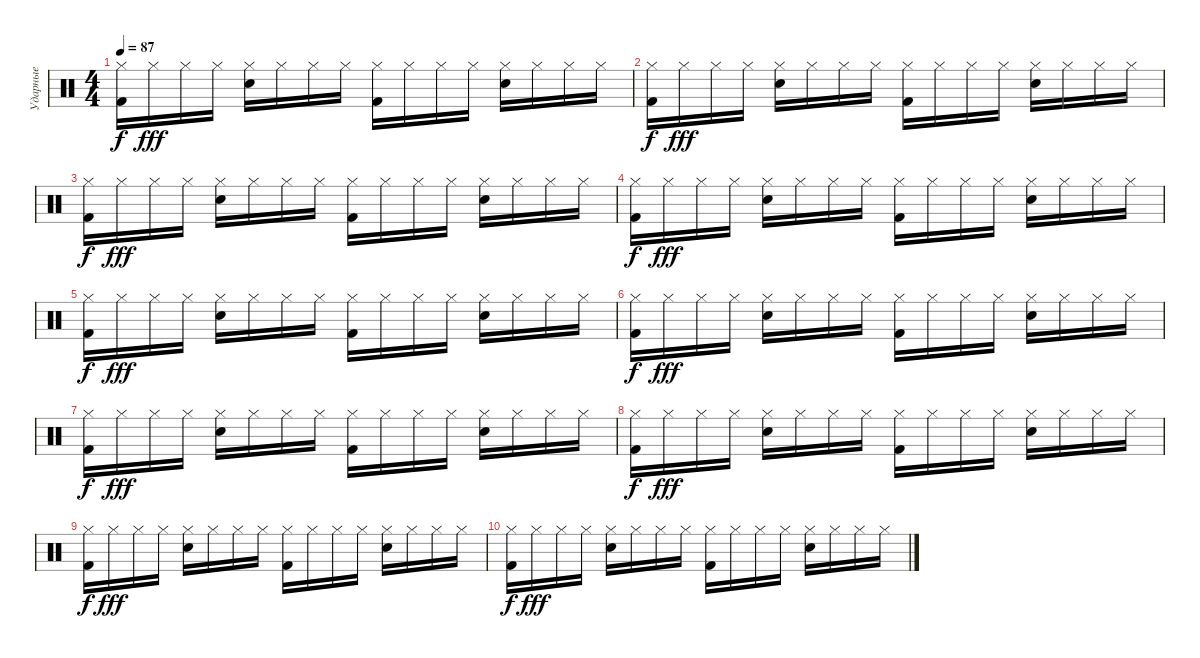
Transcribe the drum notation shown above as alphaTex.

\track ("Ударные" "Ударные") {instrument percussion}
\staff {score}
\articulation defaults
\ts (4 4)
\tempo 87
\clef neutral
\ks c
("Hi-Hat (closed)" "Kick (hit) 2").16{dy f} "Hi-Hat (closed)".16{dy fff} "Hi-Hat (closed)".16 "Hi-Hat (closed)".16 ("Hi-Hat (closed)" "Snare (hit) 2").16 "Hi-Hat (closed)".16 "Hi-Hat (closed)".16 "Hi-Hat (closed)".16 ("Hi-Hat (closed)" "Kick (hit) 2").16 "Hi-Hat (closed)".16 "Hi-Hat (closed)".16 "Hi-Hat (closed)".16 ("Hi-Hat (closed)" "Snare (hit) 2").16 "Hi-Hat (closed)".16 "Hi-Hat (closed)".16 "Hi-Hat (closed)".16 |
("Hi-Hat (closed)" "Kick (hit) 2").16{dy f} "Hi-Hat (closed)".16{dy fff} "Hi-Hat (closed)".16 "Hi-Hat (closed)".16 ("Hi-Hat (closed)" "Snare (hit) 2").16 "Hi-Hat (closed)".16 "Hi-Hat (closed)".16 "Hi-Hat (closed)".16 ("Hi-Hat (closed)" "Kick (hit) 2").16 "Hi-Hat (closed)".16 "Hi-Hat (closed)".16 "Hi-Hat (closed)".16 ("Hi-Hat (closed)" "Snare (hit) 2").16 "Hi-Hat (closed)".16 "Hi-Hat (closed)".16 "Hi-Hat (closed)".16 |
("Hi-Hat (closed)" "Kick (hit) 2").16{dy f} "Hi-Hat (closed)".16{dy fff} "Hi-Hat (closed)".16 "Hi-Hat (closed)".16 ("Hi-Hat (closed)" "Snare (hit) 2").16 "Hi-Hat (closed)".16 "Hi-Hat (closed)".16 "Hi-Hat (closed)".16 ("Hi-Hat (closed)" "Kick (hit) 2").16 "Hi-Hat (closed)".16 "Hi-Hat (closed)".16 "Hi-Hat (closed)".16 ("Hi-Hat (closed)" "Snare (hit) 2").16 "Hi-Hat (closed)".16 "Hi-Hat (closed)".16 "Hi-Hat (closed)".16 |
("Hi-Hat (closed)" "Kick (hit) 2").16{dy f} "Hi-Hat (closed)".16{dy fff} "Hi-Hat (closed)".16 "Hi-Hat (closed)".16 ("Hi-Hat (closed)" "Snare (hit) 2").16 "Hi-Hat (closed)".16 "Hi-Hat (closed)".16 "Hi-Hat (closed)".16 ("Hi-Hat (closed)" "Kick (hit) 2").16 "Hi-Hat (closed)".16 "Hi-Hat (closed)".16 "Hi-Hat (closed)".16 ("Hi-Hat (closed)" "Snare (hit) 2").16 "Hi-Hat (closed)".16 "Hi-Hat (closed)".16 "Hi-Hat (closed)".16 |
("Hi-Hat (closed)" "Kick (hit) 2").16{dy f} "Hi-Hat (closed)".16{dy fff} "Hi-Hat (closed)".16 "Hi-Hat (closed)".16 ("Hi-Hat (closed)" "Snare (hit) 2").16 "Hi-Hat (closed)".16 "Hi-Hat (closed)".16 "Hi-Hat (closed)".16 ("Hi-Hat (closed)" "Kick (hit) 2").16 "Hi-Hat (closed)".16 "Hi-Hat (closed)".16 "Hi-Hat (closed)".16 ("Hi-Hat (closed)" "Snare (hit) 2").16 "Hi-Hat (closed)".16 "Hi-Hat (closed)".16 "Hi-Hat (closed)".16 |
("Hi-Hat (closed)" "Kick (hit) 2").16{dy f} "Hi-Hat (closed)".16{dy fff} "Hi-Hat (closed)".16 "Hi-Hat (closed)".16 ("Hi-Hat (closed)" "Snare (hit) 2").16 "Hi-Hat (closed)".16 "Hi-Hat (closed)".16 "Hi-Hat (closed)".16 ("Hi-Hat (closed)" "Kick (hit) 2").16 "Hi-Hat (closed)".16 "Hi-Hat (closed)".16 "Hi-Hat (closed)".16 ("Hi-Hat (closed)" "Snare (hit) 2").16 "Hi-Hat (closed)".16 "Hi-Hat (closed)".16 "Hi-Hat (closed)".16 |
("Hi-Hat (closed)" "Kick (hit) 2").16{dy f} "Hi-Hat (closed)".16{dy fff} "Hi-Hat (closed)".16 "Hi-Hat (closed)".16 ("Hi-Hat (closed)" "Snare (hit) 2").16 "Hi-Hat (closed)".16 "Hi-Hat (closed)".16 "Hi-Hat (closed)".16 ("Hi-Hat (closed)" "Kick (hit) 2").16 "Hi-Hat (closed)".16 "Hi-Hat (closed)".16 "Hi-Hat (closed)".16 ("Hi-Hat (closed)" "Snare (hit) 2").16 "Hi-Hat (closed)".16 "Hi-Hat (closed)".16 "Hi-Hat (closed)".16 |
("Hi-Hat (closed)" "Kick (hit) 2").16{dy f} "Hi-Hat (closed)".16{dy fff} "Hi-Hat (closed)".16 "Hi-Hat (closed)".16 ("Hi-Hat (closed)" "Snare (hit) 2").16 "Hi-Hat (closed)".16 "Hi-Hat (closed)".16 "Hi-Hat (closed)".16 ("Hi-Hat (closed)" "Kick (hit) 2").16 "Hi-Hat (closed)".16 "Hi-Hat (closed)".16 "Hi-Hat (closed)".16 ("Hi-Hat (closed)" "Snare (hit) 2").16 "Hi-Hat (closed)".16 "Hi-Hat (closed)".16 "Hi-Hat (closed)".16 |
("Hi-Hat (closed)" "Kick (hit) 2").16{dy f} "Hi-Hat (closed)".16{dy fff} "Hi-Hat (closed)".16 "Hi-Hat (closed)".16 ("Hi-Hat (closed)" "Snare (hit) 2").16 "Hi-Hat (closed)".16 "Hi-Hat (closed)".16 "Hi-Hat (closed)".16 ("Hi-Hat (closed)" "Kick (hit) 2").16 "Hi-Hat (closed)".16 "Hi-Hat (closed)".16 "Hi-Hat (closed)".16 ("Hi-Hat (closed)" "Snare (hit) 2").16 "Hi-Hat (closed)".16 "Hi-Hat (closed)".16 "Hi-Hat (closed)".16 |
("Hi-Hat (closed)" "Kick (hit) 2").16{dy f} "Hi-Hat (closed)".16{dy fff} "Hi-Hat (closed)".16 "Hi-Hat (closed)".16 ("Hi-Hat (closed)" "Snare (hit) 2").16 "Hi-Hat (closed)".16 "Hi-Hat (closed)".16 "Hi-Hat (closed)".16 ("Hi-Hat (closed)" "Kick (hit) 2").16 "Hi-Hat (closed)".16 "Hi-Hat (closed)".16 "Hi-Hat (closed)".16 ("Hi-Hat (closed)" "Snare (hit) 2").16 "Hi-Hat (closed)".16 "Hi-Hat (closed)".16 "Hi-Hat (closed)".16
